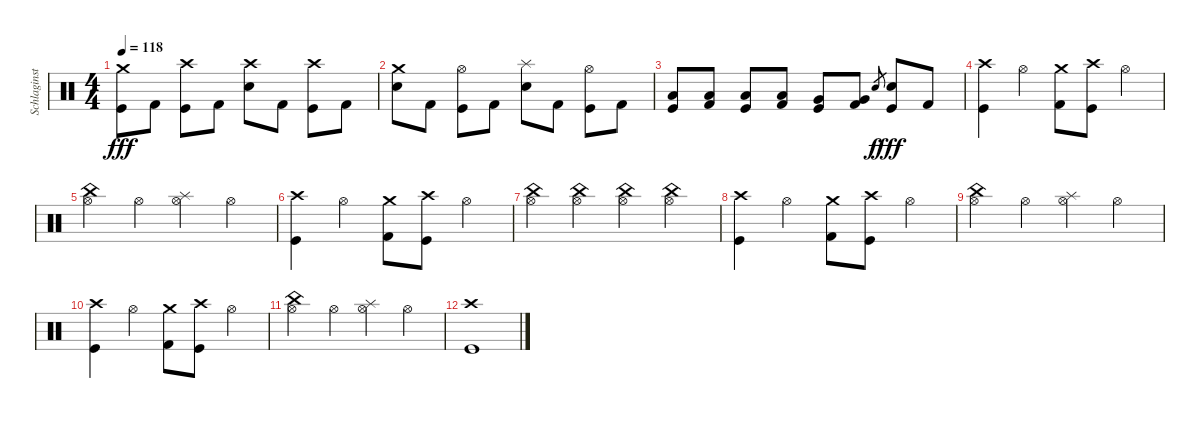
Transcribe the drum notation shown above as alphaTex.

\track ("Schlaginstrumente - Auswahl" "Schlaginst") {instrument percussion}
\staff {score}
\articulation defaults
\ts (4 4)
\tempo 118
\clef neutral
\ks c
("Crash medium (hit)" "Kick (hit)").8{dy fff} "Kick (hit) 2".8 ("Crash high (hit)" "Kick (hit)").8 "Kick (hit) 2".8 ("Crash high (hit)" "Snare (hit) 2").8 "Kick (hit) 2".8 ("Crash high (hit)" "Kick (hit)").8 "Kick (hit) 2".8 |
("Crash medium (hit)" "Snare (hit) 2").8 "Kick (hit) 2".8 ("Hi-Hat (open)" "Kick (hit)").8 "Kick (hit) 2".8 ("Splash (hit)" "Snare (hit) 2").8 "Kick (hit) 2".8 ("Hi-Hat (open)" "Kick (hit)").8 "Kick (hit) 2".8 |
("Low Tom (hit)" "Kick (hit)").8 ("Low Tom (hit)" "Kick (hit) 2").8 ("Low Tom (hit)" "Kick (hit)").8 ("Low Tom (hit)" "Kick (hit) 2").8 ("Very Low Tom (hit)" "Kick (hit)").8 ("Very Low Tom (hit)" "Kick (hit) 2").8 "Snare (hit) 2".8{gr dy f} ("Snare (hit) 2" "Kick (hit)").8{dy fff} "Kick (hit) 2".8 |
("Crash high (hit)" "Kick (hit)").4 "Hi-Hat (open)".4 ("Crash medium (hit)" "Kick (hit) 2").8 ("Crash high (hit)" "Kick (hit)").8 "Hi-Hat (open)".4 |
("Hi-Hat (open)" "China (hit)").4 "Hi-Hat (open)".4 ("Hi-Hat (open)" "Splash (hit)").4 "Hi-Hat (open)".4 |
("Crash high (hit)" "Kick (hit)").4 "Hi-Hat (open)".4 ("Crash medium (hit)" "Kick (hit) 2").8 ("Crash high (hit)" "Kick (hit)").8 "Hi-Hat (open)".4 |
("Hi-Hat (open)" "China (hit)").4 ("Hi-Hat (open)" "China (hit)").4 ("Hi-Hat (open)" "China (hit)").4 ("Hi-Hat (open)" "China (hit)").4 |
("Crash high (hit)" "Kick (hit)").4 "Hi-Hat (open)".4 ("Crash medium (hit)" "Kick (hit) 2").8 ("Crash high (hit)" "Kick (hit)").8 "Hi-Hat (open)".4 |
("Hi-Hat (open)" "China (hit)").4 "Hi-Hat (open)".4 ("Hi-Hat (open)" "Splash (hit)").4 "Hi-Hat (open)".4 |
("Crash high (hit)" "Kick (hit)").4 "Hi-Hat (open)".4 ("Crash medium (hit)" "Kick (hit) 2").8 ("Crash high (hit)" "Kick (hit)").8 "Hi-Hat (open)".4 |
("Hi-Hat (open)" "China (hit)").4 "Hi-Hat (open)".4 ("Hi-Hat (open)" "Splash (hit)").4 "Hi-Hat (open)".4 |
("Crash high (hit)" "Kick (hit)").1
